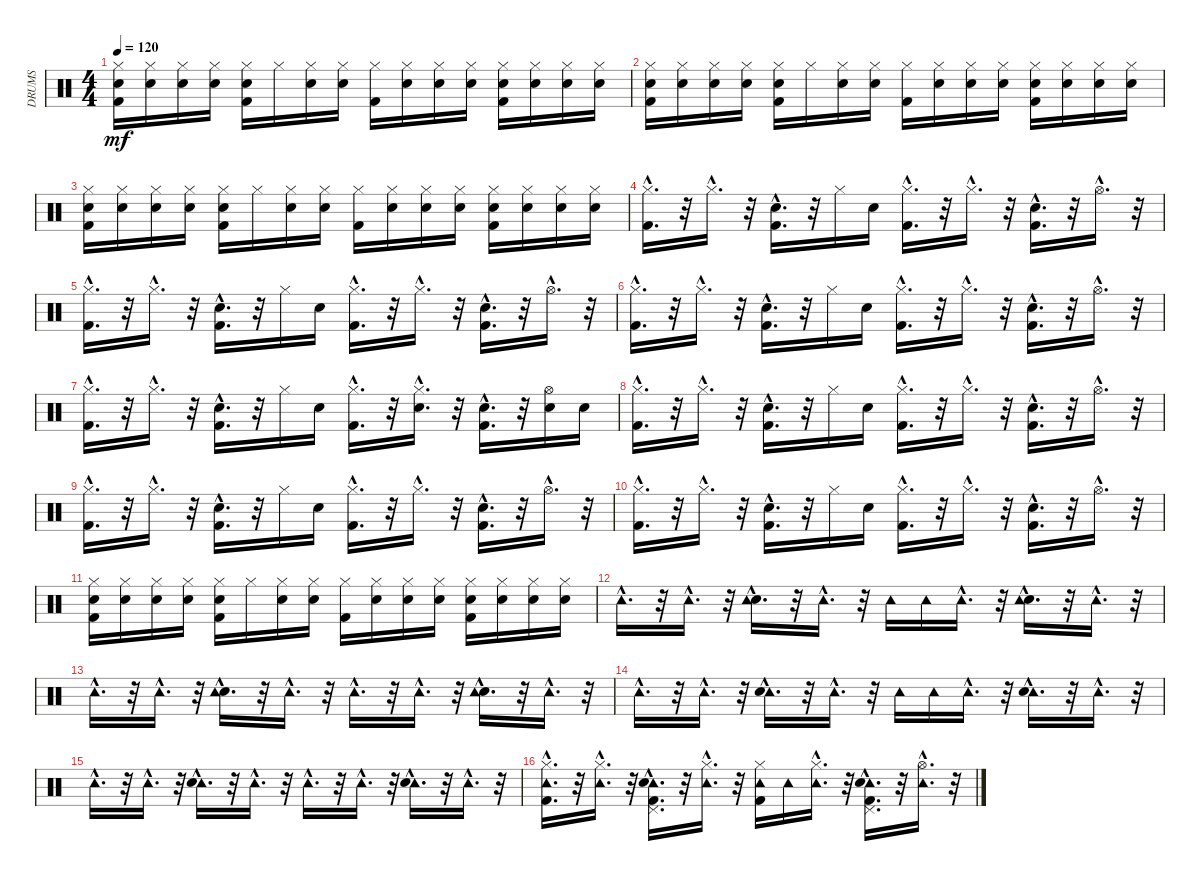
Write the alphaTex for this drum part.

\track ("DRUMS" "DRUMS") {instrument percussion}
\staff {score}
\articulation defaults
\ts (4 4)
\tempo 120
\clef neutral
\ks c
("Hi-Hat (closed)" "Kick (hit) 2" "Electric Snare (hit)").16{dy mf} ("Hi-Hat (closed)" "Electric Snare (hit)").16 ("Electric Snare (hit)" "Hi-Hat (closed)").16 ("Hi-Hat (closed)" "Electric Snare (hit)").16 ("Electric Snare (hit)" "Kick (hit) 2" "Hi-Hat (closed)").16 "Hi-Hat (closed)".16 ("Electric Snare (hit)" "Hi-Hat (closed)").16 ("Hi-Hat (closed)" "Electric Snare (hit)").16 ("Kick (hit) 2" "Hi-Hat (closed)").16 ("Electric Snare (hit)" "Hi-Hat (closed)").16 ("Electric Snare (hit)" "Hi-Hat (closed)").16 ("Electric Snare (hit)" "Hi-Hat (closed)").16 ("Electric Snare (hit)" "Kick (hit) 2" "Hi-Hat (closed)").16 ("Electric Snare (hit)" "Hi-Hat (closed)").16 ("Hi-Hat (closed)" "Electric Snare (hit)").16 ("Hi-Hat (closed)" "Electric Snare (hit)").16 |
("Hi-Hat (closed)" "Kick (hit) 2" "Electric Snare (hit)").16 ("Hi-Hat (closed)" "Electric Snare (hit)").16 ("Electric Snare (hit)" "Hi-Hat (closed)").16 ("Hi-Hat (closed)" "Electric Snare (hit)").16 ("Electric Snare (hit)" "Kick (hit) 2" "Hi-Hat (closed)").16 "Hi-Hat (closed)".16 ("Electric Snare (hit)" "Hi-Hat (closed)").16 ("Hi-Hat (closed)" "Electric Snare (hit)").16 ("Kick (hit) 2" "Hi-Hat (closed)").16 ("Electric Snare (hit)" "Hi-Hat (closed)").16 ("Hi-Hat (closed)" "Electric Snare (hit)").16 ("Hi-Hat (closed)" "Electric Snare (hit)").16 ("Electric Snare (hit)" "Kick (hit) 2" "Hi-Hat (closed)").16 ("Electric Snare (hit)" "Hi-Hat (closed)").16 ("Hi-Hat (closed)" "Electric Snare (hit)").16 ("Hi-Hat (closed)" "Electric Snare (hit)").16 |
("Hi-Hat (closed)" "Kick (hit) 2" "Electric Snare (hit)").16 ("Hi-Hat (closed)" "Electric Snare (hit)").16 ("Hi-Hat (closed)" "Electric Snare (hit)").16 ("Electric Snare (hit)" "Hi-Hat (closed)").16 ("Kick (hit) 2" "Hi-Hat (closed)" "Electric Snare (hit)").16 "Hi-Hat (closed)".16 ("Hi-Hat (closed)" "Electric Snare (hit)").16 ("Hi-Hat (closed)" "Electric Snare (hit)").16 ("Kick (hit) 2" "Hi-Hat (closed)").16 ("Hi-Hat (closed)" "Electric Snare (hit)").16 ("Hi-Hat (closed)" "Electric Snare (hit)").16 ("Electric Snare (hit)" "Hi-Hat (closed)").16 ("Kick (hit) 2" "Hi-Hat (closed)" "Electric Snare (hit)").16 ("Electric Snare (hit)" "Hi-Hat (closed)").16 ("Hi-Hat (closed)" "Electric Snare (hit)").16 ("Hi-Hat (closed)" "Electric Snare (hit)").16 |
("Kick (hit) 2"{hac} "Hi-Hat (closed)"{hac}).16{d} r.32 "Hi-Hat (closed)"{hac}.16{d} r.32 ("Kick (hit) 2"{hac} "Electric Snare (hit)"{hac}).16{d} r.32 "Hi-Hat (closed)".16 "Electric Snare (hit)".16 ("Hi-Hat (closed)"{hac} "Kick (hit) 2"{hac}).16{d} r.32 "Hi-Hat (closed)"{hac}.16{d} r.32 ("Kick (hit) 2"{hac} "Electric Snare (hit)"{hac}).16{d} r.32 "Hi-Hat (open)"{hac}.16{d} r.32 |
("Hi-Hat (closed)"{hac} "Kick (hit) 2"{hac}).16{d} r.32 "Hi-Hat (closed)"{hac}.16{d} r.32 ("Electric Snare (hit)"{hac} "Kick (hit) 2"{hac}).16{d} r.32 "Hi-Hat (closed)".16 "Electric Snare (hit)".16 ("Hi-Hat (closed)"{hac} "Kick (hit) 2"{hac}).16{d} r.32 "Hi-Hat (closed)"{hac}.16{d} r.32 ("Electric Snare (hit)"{hac} "Kick (hit) 2"{hac}).16{d} r.32 "Hi-Hat (open)"{hac}.16{d} r.32 |
("Hi-Hat (closed)"{hac} "Kick (hit) 2"{hac}).16{d} r.32 "Hi-Hat (closed)"{hac}.16{d} r.32 ("Electric Snare (hit)"{hac} "Kick (hit) 2"{hac}).16{d} r.32 "Hi-Hat (closed)".16 "Electric Snare (hit)".16 ("Hi-Hat (closed)"{hac} "Kick (hit) 2"{hac}).16{d} r.32 "Hi-Hat (closed)"{hac}.16{d} r.32 ("Electric Snare (hit)"{hac} "Kick (hit) 2"{hac}).16{d} r.32 "Hi-Hat (open)"{hac}.16{d} r.32 |
("Hi-Hat (closed)"{hac} "Kick (hit) 2"{hac}).16{d} r.32 "Hi-Hat (closed)"{hac}.16{d} r.32 ("Electric Snare (hit)"{hac} "Kick (hit) 2"{hac}).16{d} r.32 "Hi-Hat (closed)".16 "Electric Snare (hit)".16 ("Hi-Hat (closed)"{hac} "Kick (hit) 2"{hac}).16{d} r.32 ("Hi-Hat (closed)"{hac} "Electric Snare (hit)"{hac}).16{d} r.32 ("Electric Snare (hit)"{hac} "Kick (hit) 2"{hac}).16{d} r.32 ("Hi-Hat (open)" "Electric Snare (hit)").16 "Electric Snare (hit)".16 |
("Hi-Hat (closed)"{hac} "Kick (hit) 2"{hac}).16{d} r.32 "Hi-Hat (closed)"{hac}.16{d} r.32 ("Electric Snare (hit)"{hac} "Kick (hit) 2"{hac}).16{d} r.32 "Hi-Hat (closed)".16 "Electric Snare (hit)".16 ("Kick (hit) 2"{hac} "Hi-Hat (closed)"{hac}).16{d} r.32 "Hi-Hat (closed)"{hac}.16{d} r.32 ("Electric Snare (hit)"{hac} "Kick (hit) 2"{hac}).16{d} r.32 "Hi-Hat (open)"{hac}.16{d} r.32 |
("Kick (hit) 2"{hac} "Hi-Hat (closed)"{hac}).16{d} r.32 "Hi-Hat (closed)"{hac}.16{d} r.32 ("Kick (hit) 2"{hac} "Electric Snare (hit)"{hac}).16{d} r.32 "Hi-Hat (closed)".16 "Electric Snare (hit)".16 ("Kick (hit) 2"{hac} "Hi-Hat (closed)"{hac}).16{d} r.32 "Hi-Hat (closed)"{hac}.16{d} r.32 ("Kick (hit) 2"{hac} "Electric Snare (hit)"{hac}).16{d} r.32 "Hi-Hat (open)"{hac}.16{d} r.32 |
("Kick (hit) 2"{hac} "Hi-Hat (closed)"{hac}).16{d} r.32 "Hi-Hat (closed)"{hac}.16{d} r.32 ("Kick (hit) 2"{hac} "Electric Snare (hit)"{hac}).16{d} r.32 "Hi-Hat (closed)".16 "Electric Snare (hit)".16 ("Kick (hit) 2"{hac} "Hi-Hat (closed)"{hac}).16{d} r.32 "Hi-Hat (closed)"{hac}.16{d} r.32 ("Kick (hit) 2"{hac} "Electric Snare (hit)"{hac}).16{d} r.32 "Hi-Hat (open)"{hac}.16{d} r.32 |
("Electric Snare (hit)" "Kick (hit) 2" "Hi-Hat (closed)").16 ("Electric Snare (hit)" "Hi-Hat (closed)").16 ("Hi-Hat (closed)" "Electric Snare (hit)").16 ("Hi-Hat (closed)" "Electric Snare (hit)").16 ("Hi-Hat (closed)" "Kick (hit) 2" "Electric Snare (hit)").16 "Hi-Hat (closed)".16 ("Electric Snare (hit)" "Hi-Hat (closed)").16 ("Hi-Hat (closed)" "Electric Snare (hit)").16 ("Hi-Hat (closed)" "Kick (hit) 2").16 ("Electric Snare (hit)" "Hi-Hat (closed)").16 ("Hi-Hat (closed)" "Electric Snare (hit)").16 ("Hi-Hat (closed)" "Electric Snare (hit)").16 ("Hi-Hat (closed)" "Kick (hit) 2" "Electric Snare (hit)").16 ("Electric Snare (hit)" "Hi-Hat (closed)").16 ("Electric Snare (hit)" "Hi-Hat (closed)").16 ("Electric Snare (hit)" "Hi-Hat (closed)").16 |
"Tambourine (hit)"{hac}.16{d} r.32 "Tambourine (hit)"{hac}.16{d} r.32 ("Hand Clap (hit)"{hac} "Tambourine (hit)"{hac}).16{d} r.32 "Tambourine (hit)"{hac}.16{d} r.32 "Tambourine (hit)".16 "Tambourine (hit)".16 "Tambourine (hit)"{hac}.16{d} r.32 ("Hand Clap (hit)"{hac} "Tambourine (hit)"{hac}).16{d} r.32 "Tambourine (hit)"{hac}.16{d} r.32 |
"Tambourine (hit)"{hac}.16{d} r.32 "Tambourine (hit)"{hac}.16{d} r.32 ("Hand Clap (hit)"{hac} "Tambourine (hit)"{hac}).16{d} r.32 "Tambourine (hit)"{hac}.16{d} r.32 "Tambourine (hit)"{hac}.16{d} r.32 "Tambourine (hit)"{hac}.16{d} r.32 ("Hand Clap (hit)"{hac} "Tambourine (hit)"{hac}).16{d} r.32 "Tambourine (hit)"{hac}.16{d} r.32 |
"Tambourine (hit)"{hac}.16{d} r.32 "Tambourine (hit)"{hac}.16{d} r.32 ("Tambourine (hit)"{hac} "Hand Clap (hit)"{hac}).16{d} r.32 "Tambourine (hit)"{hac}.16{d} r.32 "Tambourine (hit)".16 "Tambourine (hit)".16 "Tambourine (hit)"{hac}.16{d} r.32 ("Tambourine (hit)"{hac} "Hand Clap (hit)"{hac}).16{d} r.32 "Tambourine (hit)"{hac}.16{d} r.32 |
"Tambourine (hit)"{hac}.16{d} r.32 "Tambourine (hit)"{hac}.16{d} r.32 ("Tambourine (hit)"{hac} "Hand Clap (hit)"{hac}).16{d} r.32 "Tambourine (hit)"{hac}.16{d} r.32 "Tambourine (hit)"{hac}.16{d} r.32 "Tambourine (hit)"{hac}.16{d} r.32 ("Tambourine (hit)"{hac} "Hand Clap (hit)"{hac}).16{d} r.32 "Tambourine (hit)"{hac}.16{d} r.32 |
("Hi-Hat (closed)"{hac} "Kick (hit) 2"{hac} "Tambourine (hit)"{hac}).16{d} r.32 ("Hi-Hat (closed)"{hac} "Tambourine (hit)"{hac}).16{d} r.32 ("Pedal Hi-Hat (hit)"{hac} "Kick (hit) 2"{hac} "Tambourine (hit)"{hac} "Hand Clap (hit)"{hac}).16{d} r.32 ("Hi-Hat (closed)"{hac} "Tambourine (hit)"{hac}).16{d} r.32 ("Hi-Hat (closed)" "Kick (hit) 2" "Tambourine (hit)").16 "Tambourine (hit)".16 ("Hi-Hat (closed)"{hac} "Tambourine (hit)"{hac}).16{d} r.32 ("Pedal Hi-Hat (hit)"{hac} "Kick (hit) 2"{hac} "Tambourine (hit)"{hac} "Hand Clap (hit)"{hac}).16{d} r.32 ("Hi-Hat (open)"{hac} "Tambourine (hit)"{hac}).16{d} r.32
